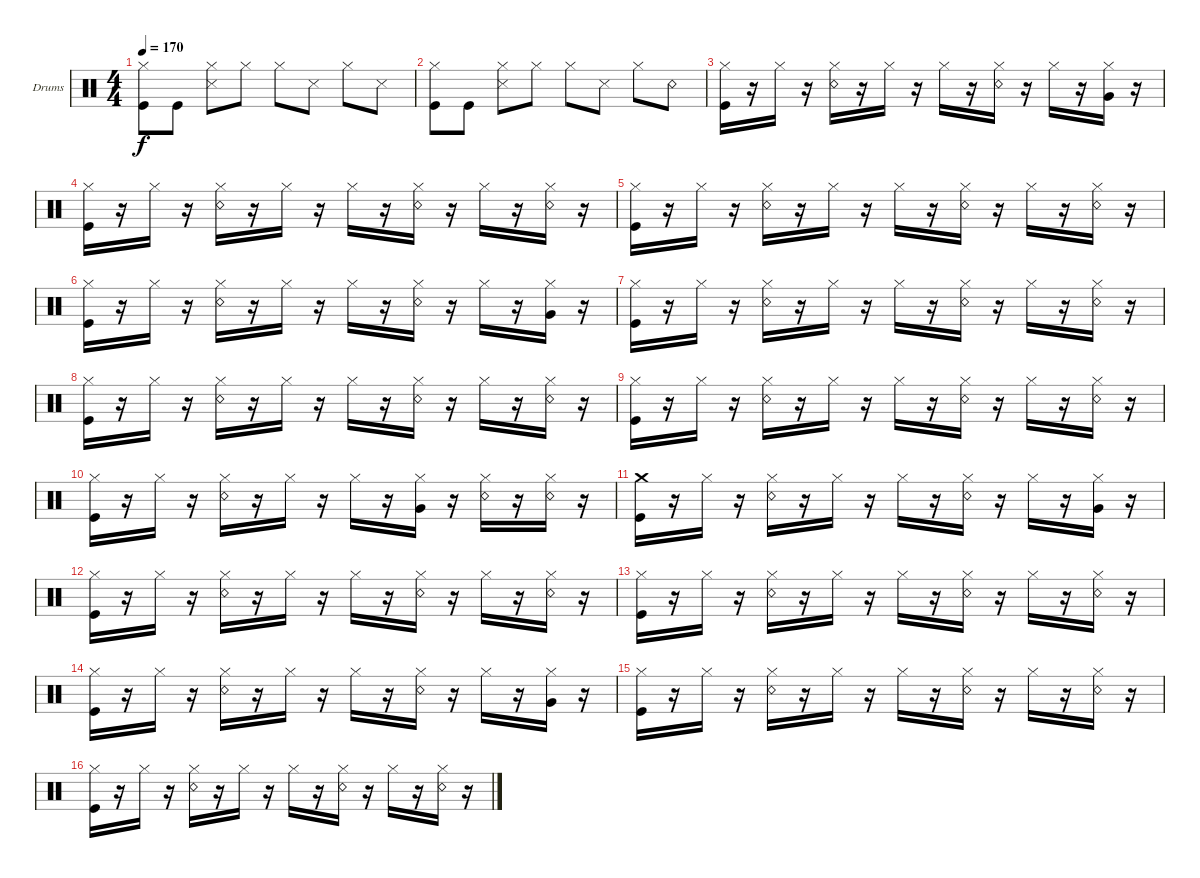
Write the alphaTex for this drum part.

\bracketExtendMode groupsimilarinstruments
\firstSystemTrackNameOrientation horizontal
\otherSystemsTrackNameOrientation horizontal
\track ("Drumkit" "Drums") {instrument percussion}
\staff {score}
\articulation defaults
\ts (4 4)
\tempo 170
\clef neutral
\ks c
("Kick (hit)" "Hi-Hat (closed)").8{dy f} "Kick (hit)".8 ("Snare (side stick) 3" "Hi-Hat (closed)").8 "Hi-Hat (closed)".8 "Hi-Hat (closed)".8 "Snare (side stick) 3".8 "Hi-Hat (closed)".8 "Snare (side stick) 3".8 |
("Kick (hit)" "Hi-Hat (closed)").8 "Kick (hit)".8 ("Snare (side stick) 3" "Hi-Hat (closed)").8 "Hi-Hat (closed)".8 "Hi-Hat (closed)".8 "Snare (side stick) 3".8 "Hi-Hat (closed)".8 "Snare (rim shot)".8 |
("Kick (hit)" "Hi-Hat (closed)").16 r.16 "Hi-Hat (closed)".16 r.16 ("Snare (rim shot)" "Hi-Hat (closed)").16 r.16 "Hi-Hat (closed)".16 r.16 "Hi-Hat (closed)".16 r.16 ("Snare (rim shot)" "Hi-Hat (closed)").16 r.16 "Hi-Hat (closed)".16 r.16 ("Very Low Tom (hit)" "Hi-Hat (closed)").16 r.16 |
("Kick (hit)" "Hi-Hat (closed)").16 r.16 "Hi-Hat (closed)".16 r.16 ("Snare (rim shot)" "Hi-Hat (closed)").16 r.16 "Hi-Hat (closed)".16 r.16 "Hi-Hat (closed)".16 r.16 ("Snare (rim shot)" "Hi-Hat (closed)").16 r.16 "Hi-Hat (closed)".16 r.16 ("Snare (rim shot)" "Hi-Hat (closed)").16 r.16 |
("Kick (hit)" "Hi-Hat (closed)").16 r.16 "Hi-Hat (closed)".16 r.16 ("Snare (rim shot)" "Hi-Hat (closed)").16 r.16 "Hi-Hat (closed)".16 r.16 "Hi-Hat (closed)".16 r.16 ("Snare (rim shot)" "Hi-Hat (closed)").16 r.16 "Hi-Hat (closed)".16 r.16 ("Snare (rim shot)" "Hi-Hat (closed)").16 r.16 |
("Kick (hit)" "Hi-Hat (closed)").16 r.16 "Hi-Hat (closed)".16 r.16 ("Snare (rim shot)" "Hi-Hat (closed)").16 r.16 "Hi-Hat (closed)".16 r.16 "Hi-Hat (closed)".16 r.16 ("Snare (rim shot)" "Hi-Hat (closed)").16 r.16 "Hi-Hat (closed)".16 r.16 ("Very Low Tom (hit)" "Hi-Hat (closed)").16 r.16 |
("Kick (hit)" "Hi-Hat (closed)").16 r.16 "Hi-Hat (closed)".16 r.16 ("Snare (rim shot)" "Hi-Hat (closed)").16 r.16 "Hi-Hat (closed)".16 r.16 "Hi-Hat (closed)".16 r.16 ("Snare (rim shot)" "Hi-Hat (closed)").16 r.16 "Hi-Hat (closed)".16 r.16 ("Snare (rim shot)" "Hi-Hat (closed)").16 r.16 |
("Kick (hit)" "Hi-Hat (closed)").16 r.16 "Hi-Hat (closed)".16 r.16 ("Snare (rim shot)" "Hi-Hat (closed)").16 r.16 "Hi-Hat (closed)".16 r.16 "Hi-Hat (closed)".16 r.16 ("Snare (rim shot)" "Hi-Hat (closed)").16 r.16 "Hi-Hat (closed)".16 r.16 ("Snare (rim shot)" "Hi-Hat (closed)").16 r.16 |
("Kick (hit)" "Hi-Hat (closed)").16 r.16 "Hi-Hat (closed)".16 r.16 ("Snare (rim shot)" "Hi-Hat (closed)").16 r.16 "Hi-Hat (closed)".16 r.16 "Hi-Hat (closed)".16 r.16 ("Snare (rim shot)" "Hi-Hat (closed)").16 r.16 "Hi-Hat (closed)".16 r.16 ("Snare (rim shot)" "Hi-Hat (closed)").16 r.16 |
("Kick (hit)" "Hi-Hat (closed)").16 r.16 "Hi-Hat (closed)".16 r.16 ("Snare (rim shot)" "Hi-Hat (closed)").16 r.16 "Hi-Hat (closed)".16 r.16 "Hi-Hat (closed)".16 r.16 ("Very Low Tom (hit)" "Hi-Hat (closed)").16 r.16 ("Snare (rim shot)" "Hi-Hat (closed)").16 r.16 ("Snare (rim shot)" "Hi-Hat (closed)").16 r.16 |
("Kick (hit)" "Crash medium (hit)").16 r.16 "Hi-Hat (closed)".16 r.16 ("Snare (rim shot)" "Hi-Hat (closed)").16 r.16 "Hi-Hat (closed)".16 r.16 "Hi-Hat (closed)".16 r.16 ("Snare (rim shot)" "Hi-Hat (closed)").16 r.16 "Hi-Hat (closed)".16 r.16 ("Very Low Tom (hit)" "Hi-Hat (closed)").16 r.16 |
("Kick (hit)" "Hi-Hat (closed)").16 r.16 "Hi-Hat (closed)".16 r.16 ("Snare (rim shot)" "Hi-Hat (closed)").16 r.16 "Hi-Hat (closed)".16 r.16 "Hi-Hat (closed)".16 r.16 ("Snare (rim shot)" "Hi-Hat (closed)").16 r.16 "Hi-Hat (closed)".16 r.16 ("Snare (rim shot)" "Hi-Hat (closed)").16 r.16 |
("Kick (hit)" "Hi-Hat (closed)").16 r.16 "Hi-Hat (closed)".16 r.16 ("Snare (rim shot)" "Hi-Hat (closed)").16 r.16 "Hi-Hat (closed)".16 r.16 "Hi-Hat (closed)".16 r.16 ("Snare (rim shot)" "Hi-Hat (closed)").16 r.16 "Hi-Hat (closed)".16 r.16 ("Snare (rim shot)" "Hi-Hat (closed)").16 r.16 |
("Kick (hit)" "Hi-Hat (closed)").16 r.16 "Hi-Hat (closed)".16 r.16 ("Snare (rim shot)" "Hi-Hat (closed)").16 r.16 "Hi-Hat (closed)".16 r.16 "Hi-Hat (closed)".16 r.16 ("Snare (rim shot)" "Hi-Hat (closed)").16 r.16 "Hi-Hat (closed)".16 r.16 ("Very Low Tom (hit)" "Hi-Hat (closed)").16 r.16 |
("Kick (hit)" "Hi-Hat (closed)").16 r.16 "Hi-Hat (closed)".16 r.16 ("Snare (rim shot)" "Hi-Hat (closed)").16 r.16 "Hi-Hat (closed)".16 r.16 "Hi-Hat (closed)".16 r.16 ("Snare (rim shot)" "Hi-Hat (closed)").16 r.16 "Hi-Hat (closed)".16 r.16 ("Snare (rim shot)" "Hi-Hat (closed)").16 r.16 |
("Kick (hit)" "Hi-Hat (closed)").16 r.16 "Hi-Hat (closed)".16 r.16 ("Snare (rim shot)" "Hi-Hat (closed)").16 r.16 "Hi-Hat (closed)".16 r.16 "Hi-Hat (closed)".16 r.16 ("Snare (rim shot)" "Hi-Hat (closed)").16 r.16 "Hi-Hat (closed)".16 r.16 ("Snare (rim shot)" "Hi-Hat (closed)").16 r.16
